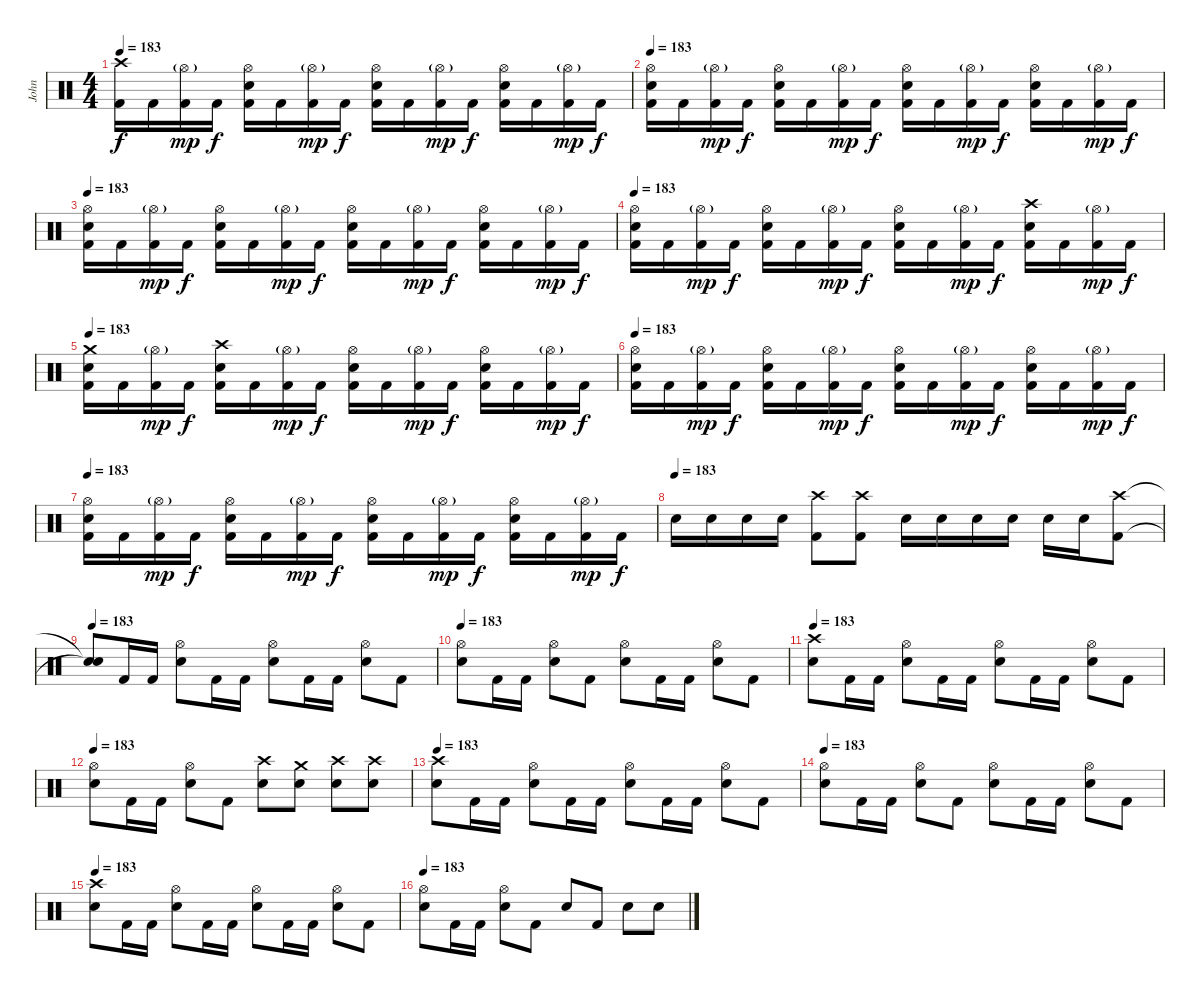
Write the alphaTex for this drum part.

\track ("John " "John ") {instrument percussion}
\staff {score}
\articulation defaults
\ts (4 4)
\tempo 183
\clef neutral
\ks c
("Crash high (hit)" "Kick (hit) 2").16{dy f} "Kick (hit) 2".16 ("Hi-Hat (open)"{g} "Kick (hit) 2").16{dy mp} "Kick (hit) 2".16{dy f} ("Hi-Hat (open)" "Snare (hit) 2" "Kick (hit) 2").16 "Kick (hit) 2".16 ("Hi-Hat (open)"{g} "Kick (hit) 2").16{dy mp} "Kick (hit) 2".16{dy f} ("Hi-Hat (open)" "Snare (hit) 2" "Kick (hit) 2").16 "Kick (hit) 2".16 ("Hi-Hat (open)"{g} "Kick (hit) 2").16{dy mp} "Kick (hit) 2".16{dy f} ("Hi-Hat (open)" "Snare (hit) 2" "Kick (hit) 2").16 "Kick (hit) 2".16 ("Hi-Hat (open)"{g} "Kick (hit) 2").16{dy mp} "Kick (hit) 2".16{dy f} |
\tempo 183
("Hi-Hat (open)" "Snare (hit) 2" "Kick (hit) 2").16 "Kick (hit) 2".16 ("Hi-Hat (open)"{g} "Kick (hit) 2").16{dy mp} "Kick (hit) 2".16{dy f} ("Hi-Hat (open)" "Snare (hit) 2" "Kick (hit) 2").16 "Kick (hit) 2".16 ("Hi-Hat (open)"{g} "Kick (hit) 2").16{dy mp} "Kick (hit) 2".16{dy f} ("Hi-Hat (open)" "Snare (hit) 2" "Kick (hit) 2").16 "Kick (hit) 2".16 ("Hi-Hat (open)"{g} "Kick (hit) 2").16{dy mp} "Kick (hit) 2".16{dy f} ("Hi-Hat (open)" "Snare (hit) 2" "Kick (hit) 2").16 "Kick (hit) 2".16 ("Hi-Hat (open)"{g} "Kick (hit) 2").16{dy mp} "Kick (hit) 2".16{dy f} |
\tempo 183
("Hi-Hat (open)" "Snare (hit) 2" "Kick (hit) 2").16 "Kick (hit) 2".16 ("Hi-Hat (open)"{g} "Kick (hit) 2").16{dy mp} "Kick (hit) 2".16{dy f} ("Hi-Hat (open)" "Snare (hit) 2" "Kick (hit) 2").16 "Kick (hit) 2".16 ("Hi-Hat (open)"{g} "Kick (hit) 2").16{dy mp} "Kick (hit) 2".16{dy f} ("Hi-Hat (open)" "Snare (hit) 2" "Kick (hit) 2").16 "Kick (hit) 2".16 ("Hi-Hat (open)"{g} "Kick (hit) 2").16{dy mp} "Kick (hit) 2".16{dy f} ("Hi-Hat (open)" "Snare (hit) 2" "Kick (hit) 2").16 "Kick (hit) 2".16 ("Hi-Hat (open)"{g} "Kick (hit) 2").16{dy mp} "Kick (hit) 2".16{dy f} |
\tempo 183
("Hi-Hat (open)" "Snare (hit) 2" "Kick (hit) 2").16 "Kick (hit) 2".16 ("Hi-Hat (open)"{g} "Kick (hit) 2").16{dy mp} "Kick (hit) 2".16{dy f} ("Hi-Hat (open)" "Snare (hit) 2" "Kick (hit) 2").16 "Kick (hit) 2".16 ("Hi-Hat (open)"{g} "Kick (hit) 2").16{dy mp} "Kick (hit) 2".16{dy f} ("Hi-Hat (open)" "Snare (hit) 2" "Kick (hit) 2").16 "Kick (hit) 2".16 ("Hi-Hat (open)"{g} "Kick (hit) 2").16{dy mp} "Kick (hit) 2".16{dy f} ("Crash high (hit)" "Snare (hit) 2" "Kick (hit) 2").16 "Kick (hit) 2".16 ("Hi-Hat (open)"{g} "Kick (hit) 2").16{dy mp} "Kick (hit) 2".16{dy f} |
\tempo 183
("Crash medium (hit)" "Snare (hit) 2" "Kick (hit) 2").16 "Kick (hit) 2".16 ("Hi-Hat (open)"{g} "Kick (hit) 2").16{dy mp} "Kick (hit) 2".16{dy f} ("Crash high (hit)" "Snare (hit) 2" "Kick (hit) 2").16 "Kick (hit) 2".16 ("Hi-Hat (open)"{g} "Kick (hit) 2").16{dy mp} "Kick (hit) 2".16{dy f} ("Hi-Hat (open)" "Snare (hit) 2" "Kick (hit) 2").16 "Kick (hit) 2".16 ("Hi-Hat (open)"{g} "Kick (hit) 2").16{dy mp} "Kick (hit) 2".16{dy f} ("Hi-Hat (open)" "Snare (hit) 2" "Kick (hit) 2").16 "Kick (hit) 2".16 ("Hi-Hat (open)"{g} "Kick (hit) 2").16{dy mp} "Kick (hit) 2".16{dy f} |
\tempo 183
("Hi-Hat (open)" "Snare (hit) 2" "Kick (hit) 2").16 "Kick (hit) 2".16 ("Hi-Hat (open)"{g} "Kick (hit) 2").16{dy mp} "Kick (hit) 2".16{dy f} ("Hi-Hat (open)" "Snare (hit) 2" "Kick (hit) 2").16 "Kick (hit) 2".16 ("Hi-Hat (open)"{g} "Kick (hit) 2").16{dy mp} "Kick (hit) 2".16{dy f} ("Hi-Hat (open)" "Snare (hit) 2" "Kick (hit) 2").16 "Kick (hit) 2".16 ("Hi-Hat (open)"{g} "Kick (hit) 2").16{dy mp} "Kick (hit) 2".16{dy f} ("Hi-Hat (open)" "Snare (hit) 2" "Kick (hit) 2").16 "Kick (hit) 2".16 ("Hi-Hat (open)"{g} "Kick (hit) 2").16{dy mp} "Kick (hit) 2".16{dy f} |
\tempo 183
("Hi-Hat (open)" "Snare (hit) 2" "Kick (hit) 2").16 "Kick (hit) 2".16 ("Hi-Hat (open)"{g} "Kick (hit) 2").16{dy mp} "Kick (hit) 2".16{dy f} ("Hi-Hat (open)" "Snare (hit) 2" "Kick (hit) 2").16 "Kick (hit) 2".16 ("Hi-Hat (open)"{g} "Kick (hit) 2").16{dy mp} "Kick (hit) 2".16{dy f} ("Hi-Hat (open)" "Snare (hit) 2" "Kick (hit) 2").16 "Kick (hit) 2".16 ("Hi-Hat (open)"{g} "Kick (hit) 2").16{dy mp} "Kick (hit) 2".16{dy f} ("Hi-Hat (open)" "Snare (hit) 2" "Kick (hit) 2").16 "Kick (hit) 2".16 ("Hi-Hat (open)"{g} "Kick (hit) 2").16{dy mp} "Kick (hit) 2".16{dy f} |
\tempo (183)
"Snare (hit) 2".16 "Snare (hit) 2".16 "Snare (hit) 2".16 "Snare (hit) 2".16 ("Crash high (hit)" "Kick (hit) 2").8 ("Crash high (hit)" "Kick (hit) 2").8 "Snare (hit) 2".16 "Snare (hit) 2".16 "Snare (hit) 2".16 "Snare (hit) 2".16 "Snare (hit) 2".16 "Snare (hit) 2".16 ("Crash high (hit)" "Kick (hit) 2").8 |
\tempo 183
("Snare (hit)"{t} "Snare (hit)"{t}).8 "Kick (hit) 2".16 "Kick (hit) 2".16 ("Hi-Hat (open)" "Snare (hit) 2").8 "Kick (hit) 2".16 "Kick (hit) 2".16 ("Hi-Hat (open)" "Snare (hit) 2").8 "Kick (hit) 2".16 "Kick (hit) 2".16 ("Hi-Hat (open)" "Snare (hit) 2").8 "Kick (hit) 2".8 |
\tempo 183
("Hi-Hat (open)" "Snare (hit) 2").8 "Kick (hit) 2".16 "Kick (hit) 2".16 ("Hi-Hat (open)" "Snare (hit) 2").8 "Kick (hit) 2".8 ("Hi-Hat (open)" "Snare (hit) 2").8 "Kick (hit) 2".16 "Kick (hit) 2".16 ("Hi-Hat (open)" "Snare (hit) 2").8 "Kick (hit) 2".8 |
\tempo 183
("Crash high (hit)" "Snare (hit) 2").8 "Kick (hit) 2".16 "Kick (hit) 2".16 ("Hi-Hat (open)" "Snare (hit) 2").8 "Kick (hit) 2".16 "Kick (hit) 2".16 ("Hi-Hat (open)" "Snare (hit) 2").8 "Kick (hit) 2".16 "Kick (hit) 2".16 ("Hi-Hat (open)" "Snare (hit) 2").8 "Kick (hit) 2".8 |
\tempo 183
("Hi-Hat (open)" "Snare (hit) 2").8 "Kick (hit) 2".16 "Kick (hit) 2".16 ("Hi-Hat (open)" "Snare (hit) 2").8 "Kick (hit) 2".8 ("Crash high (hit)" "Snare (hit) 2").8 ("Crash medium (hit)" "Snare (hit) 2").8 ("Crash high (hit)" "Snare (hit) 2").8 ("Crash high (hit)" "Snare (hit) 2").8 |
\tempo 183
("Crash high (hit)" "Snare (hit) 2").8 "Kick (hit) 2".16 "Kick (hit) 2".16 ("Hi-Hat (open)" "Snare (hit) 2").8 "Kick (hit) 2".16 "Kick (hit) 2".16 ("Hi-Hat (open)" "Snare (hit) 2").8 "Kick (hit) 2".16 "Kick (hit) 2".16 ("Hi-Hat (open)" "Snare (hit) 2").8 "Kick (hit) 2".8 |
\tempo 183
("Hi-Hat (open)" "Snare (hit) 2").8 "Kick (hit) 2".16 "Kick (hit) 2".16 ("Hi-Hat (open)" "Snare (hit) 2").8 "Kick (hit) 2".8 ("Hi-Hat (open)" "Snare (hit) 2").8 "Kick (hit) 2".16 "Kick (hit) 2".16 ("Hi-Hat (open)" "Snare (hit) 2").8 "Kick (hit) 2".8 |
\tempo 183
("Crash high (hit)" "Snare (hit) 2").8 "Kick (hit) 2".16 "Kick (hit) 2".16 ("Hi-Hat (open)" "Snare (hit) 2").8 "Kick (hit) 2".16 "Kick (hit) 2".16 ("Hi-Hat (open)" "Snare (hit) 2").8 "Kick (hit) 2".16 "Kick (hit) 2".16 ("Hi-Hat (open)" "Snare (hit) 2").8 "Kick (hit) 2".8 |
\tempo 183
("Hi-Hat (open)" "Snare (hit) 2").8 "Kick (hit) 2".16 "Kick (hit) 2".16 ("Hi-Hat (open)" "Snare (hit) 2").8 "Kick (hit) 2".8 "Snare (hit) 2".8 "Kick (hit) 2".8 "Snare (hit) 2".8 "Snare (hit) 2".8
